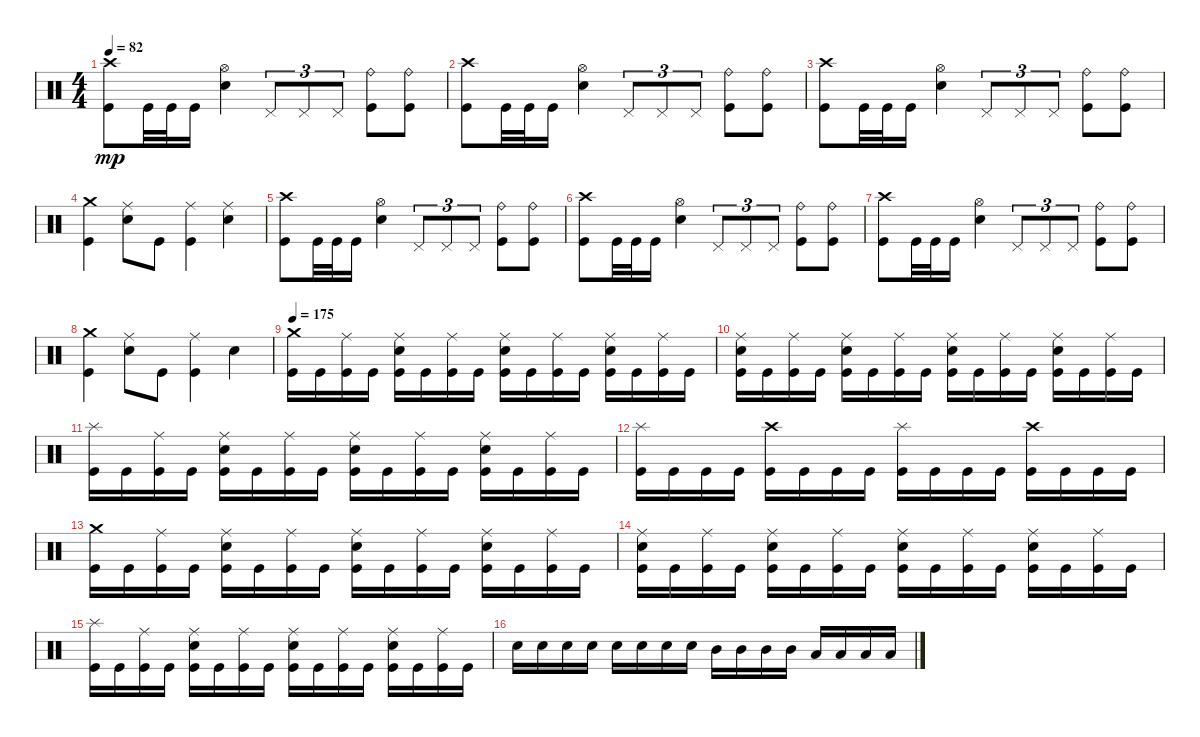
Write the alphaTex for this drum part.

\track "" {instrument percussion}
\staff {score}
\articulation defaults
\ts (4 4)
\tempo 82
\clef neutral
\ks c
("Kick (hit)" "Crash high (hit)").8{dy mp} "Kick (hit)".32 "Kick (hit)".32 "Kick (hit)".16 ("Snare (hit) 2" "Hi-Hat (open)").4 "Pedal Hi-Hat (hit)".8{tu (3 2)} "Pedal Hi-Hat (hit)".8{tu (3 2)} "Pedal Hi-Hat (hit)".8{tu (3 2)} ("Ride (bell)" "Kick (hit)").8 ("Kick (hit)" "Ride (bell)").8 |
("Kick (hit)" "Crash high (hit)").8 "Kick (hit)".32 "Kick (hit)".32 "Kick (hit)".16 ("Snare (hit) 2" "Hi-Hat (open)").4 "Pedal Hi-Hat (hit)".8{tu (3 2)} "Pedal Hi-Hat (hit)".8{tu (3 2)} "Pedal Hi-Hat (hit)".8{tu (3 2)} ("Ride (bell)" "Kick (hit)").8 ("Kick (hit)" "Ride (bell)").8 |
("Kick (hit)" "Crash high (hit)").8 "Kick (hit)".32 "Kick (hit)".32 "Kick (hit)".16 ("Snare (hit) 2" "Hi-Hat (open)").4 "Pedal Hi-Hat (hit)".8{tu (3 2)} "Pedal Hi-Hat (hit)".8{tu (3 2)} "Pedal Hi-Hat (hit)".8{tu (3 2)} ("Ride (bell)" "Kick (hit)").8 ("Kick (hit)" "Ride (bell)").8 |
("Crash medium (hit)" "Kick (hit)").4 ("Snare (hit) 2" "Ride (middle)").8 "Kick (hit)".8 ("Kick (hit)" "Ride (middle)").4 ("Snare (hit) 2" "Ride (middle)").4 |
("Kick (hit)" "Crash high (hit)").8 "Kick (hit)".32 "Kick (hit)".32 "Kick (hit)".16 ("Snare (hit) 2" "Hi-Hat (open)").4 "Pedal Hi-Hat (hit)".8{tu (3 2)} "Pedal Hi-Hat (hit)".8{tu (3 2)} "Pedal Hi-Hat (hit)".8{tu (3 2)} ("Ride (bell)" "Kick (hit)").8 ("Kick (hit)" "Ride (bell)").8 |
("Kick (hit)" "Crash high (hit)").8 "Kick (hit)".32 "Kick (hit)".32 "Kick (hit)".16 ("Snare (hit) 2" "Hi-Hat (open)").4 "Pedal Hi-Hat (hit)".8{tu (3 2)} "Pedal Hi-Hat (hit)".8{tu (3 2)} "Pedal Hi-Hat (hit)".8{tu (3 2)} ("Ride (bell)" "Kick (hit)").8 ("Kick (hit)" "Ride (bell)").8 |
("Kick (hit)" "Crash high (hit)").8 "Kick (hit)".32 "Kick (hit)".32 "Kick (hit)".16 ("Snare (hit) 2" "Hi-Hat (open)").4 "Pedal Hi-Hat (hit)".8{tu (3 2)} "Pedal Hi-Hat (hit)".8{tu (3 2)} "Pedal Hi-Hat (hit)".8{tu (3 2)} ("Ride (bell)" "Kick (hit)").8 ("Kick (hit)" "Ride (bell)").8 |
("Crash medium (hit)" "Kick (hit)").4 ("Snare (hit) 2" "Ride (middle)").8 "Kick (hit)".8 ("Kick (hit)" "Ride (middle)").4 "Snare (hit) 2".4 |
\tempo 175
("Kick (hit)" "Crash medium (hit)").16 "Kick (hit)".16 ("Kick (hit)" "Ride (middle)").16 "Kick (hit)".16 ("Kick (hit)" "Snare (hit) 2" "Ride (middle)").16 "Kick (hit)".16 ("Kick (hit)" "Ride (middle)").16 "Kick (hit)".16 ("Kick (hit)" "Snare (hit) 2" "Ride (middle)").16 "Kick (hit)".16 ("Kick (hit)" "Ride (middle)").16 "Kick (hit)".16 ("Kick (hit)" "Snare (hit) 2" "Ride (middle)").16 "Kick (hit)".16 ("Kick (hit)" "Ride (middle)").16 "Kick (hit)".16 |
("Kick (hit)" "Snare (hit) 2" "Ride (middle)").16 "Kick (hit)".16 ("Kick (hit)" "Ride (middle)").16 "Kick (hit)".16 ("Kick (hit)" "Snare (hit) 2" "Ride (middle)").16 "Kick (hit)".16 ("Kick (hit)" "Ride (middle)").16 "Kick (hit)".16 ("Kick (hit)" "Snare (hit) 2" "Ride (middle)").16 "Kick (hit)".16 ("Kick (hit)" "Ride (middle)").16 "Kick (hit)".16 ("Kick (hit)" "Snare (hit) 2" "Ride (middle)").16 "Kick (hit)".16 ("Kick (hit)" "Ride (middle)").16 "Kick (hit)".16 |
("Kick (hit)" "Splash (hit)").16 "Kick (hit)".16 ("Kick (hit)" "Ride (middle)").16 "Kick (hit)".16 ("Kick (hit)" "Snare (hit) 2" "Ride (middle)").16 "Kick (hit)".16 ("Kick (hit)" "Ride (middle)").16 "Kick (hit)".16 ("Kick (hit)" "Snare (hit) 2" "Ride (middle)").16 "Kick (hit)".16 ("Kick (hit)" "Ride (middle)").16 "Kick (hit)".16 ("Kick (hit)" "Snare (hit) 2" "Ride (middle)").16 "Kick (hit)".16 ("Kick (hit)" "Ride (middle)").16 "Kick (hit)".16 |
("Kick (hit)" "Splash (hit)").16 "Kick (hit)".16 "Kick (hit)".16 "Kick (hit)".16 ("Kick (hit)" "Crash high (hit)").16 "Kick (hit)".16 "Kick (hit)".16 "Kick (hit)".16 ("Kick (hit)" "Splash (hit)").16 "Kick (hit)".16 "Kick (hit)".16 "Kick (hit)".16 ("Kick (hit)" "Crash high (hit)").16 "Kick (hit)".16 "Kick (hit)".16 "Kick (hit)".16 |
("Kick (hit)" "Crash medium (hit)").16 "Kick (hit)".16 ("Kick (hit)" "Ride (middle)").16 "Kick (hit)".16 ("Kick (hit)" "Snare (hit) 2" "Ride (middle)").16 "Kick (hit)".16 ("Kick (hit)" "Ride (middle)").16 "Kick (hit)".16 ("Kick (hit)" "Snare (hit) 2" "Ride (middle)").16 "Kick (hit)".16 ("Kick (hit)" "Ride (middle)").16 "Kick (hit)".16 ("Kick (hit)" "Snare (hit) 2" "Ride (middle)").16 "Kick (hit)".16 ("Kick (hit)" "Ride (middle)").16 "Kick (hit)".16 |
("Kick (hit)" "Snare (hit) 2" "Ride (middle)").16 "Kick (hit)".16 ("Kick (hit)" "Ride (middle)").16 "Kick (hit)".16 ("Kick (hit)" "Snare (hit) 2" "Ride (middle)").16 "Kick (hit)".16 ("Kick (hit)" "Ride (middle)").16 "Kick (hit)".16 ("Kick (hit)" "Snare (hit) 2" "Ride (middle)").16 "Kick (hit)".16 ("Kick (hit)" "Ride (middle)").16 "Kick (hit)".16 ("Kick (hit)" "Snare (hit) 2" "Ride (middle)").16 "Kick (hit)".16 ("Kick (hit)" "Ride (middle)").16 "Kick (hit)".16 |
("Kick (hit)" "Splash (hit)").16 "Kick (hit)".16 ("Kick (hit)" "Ride (middle)").16 "Kick (hit)".16 ("Kick (hit)" "Snare (hit) 2" "Ride (middle)").16 "Kick (hit)".16 ("Kick (hit)" "Ride (middle)").16 "Kick (hit)".16 ("Kick (hit)" "Snare (hit) 2" "Ride (middle)").16 "Kick (hit)".16 ("Kick (hit)" "Ride (middle)").16 "Kick (hit)".16 ("Kick (hit)" "Snare (hit) 2" "Ride (middle)").16 "Kick (hit)".16 ("Kick (hit)" "Ride (middle)").16 "Kick (hit)".16 |
"Snare (hit) 2".16 "Snare (hit) 2".16 "Snare (hit) 2".16 "Snare (hit) 2".16 "Snare (hit) 2".16 "Snare (hit) 2".16 "Snare (hit) 2".16 "Snare (hit) 2".16 "Mid Tom (hit)".16 "Mid Tom (hit)".16 "Mid Tom (hit)".16 "Mid Tom (hit)".16 "Low Tom (hit)".16 "Low Tom (hit)".16 "Low Tom (hit)".16 "Low Tom (hit)".16
